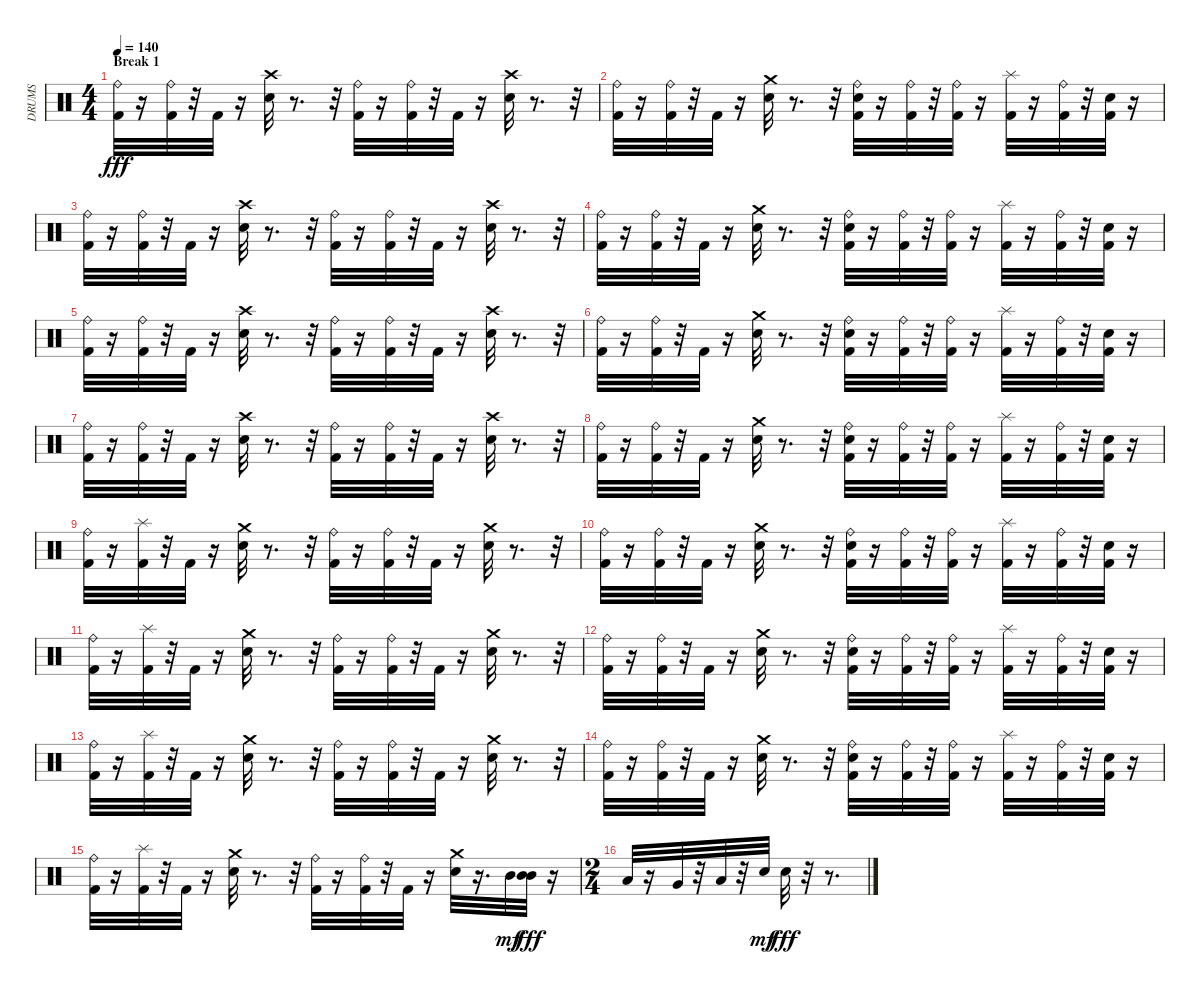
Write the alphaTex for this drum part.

\track ("DRUMS" "DRUMS") {instrument percussion}
\staff {score}
\articulation defaults
\ts (4 4)
\section ("" "Break 1")
\tempo 140
\clef neutral
\ks c
("Ride (bell)" "Kick (hit) 2").32{dy fff} r.16 ("Ride (bell)" "Kick (hit) 2").32 r.32 "Kick (hit) 2".32 r.16 ("Crash high (hit)" "Electric Snare (hit)").32 r.8{d} r.32 ("Ride (bell)" "Kick (hit) 2").32 r.16 ("Ride (bell)" "Kick (hit) 2").32 r.32 "Kick (hit) 2".32 r.16 ("Crash high (hit)" "Electric Snare (hit)").32 r.8{d} r.32 |
("Ride (bell)" "Kick (hit) 2").32 r.16 ("Ride (bell)" "Kick (hit) 2").32 r.32 "Kick (hit) 2".32 r.16 ("Crash medium (hit)" "Electric Snare (hit)").32 r.8{d} r.32 ("Ride (bell)" "Electric Snare (hit)" "Kick (hit) 2").32 r.16 ("Ride (bell)" "Kick (hit) 2").32 r.32 ("Ride (bell)" "Kick (hit) 2").32 r.16 ("Splash (hit)" "Kick (hit) 2").32 r.16 ("Ride (bell)" "Kick (hit) 2").32 r.32 ("Electric Snare (hit)" "Kick (hit) 2").32 r.16 |
("Ride (bell)" "Kick (hit) 2").32 r.16 ("Ride (bell)" "Kick (hit) 2").32 r.32 "Kick (hit) 2".32 r.16 ("Crash high (hit)" "Electric Snare (hit)").32 r.8{d} r.32 ("Ride (bell)" "Kick (hit) 2").32 r.16 ("Ride (bell)" "Kick (hit) 2").32 r.32 "Kick (hit) 2".32 r.16 ("Crash high (hit)" "Electric Snare (hit)").32 r.8{d} r.32 |
("Ride (bell)" "Kick (hit) 2").32 r.16 ("Ride (bell)" "Kick (hit) 2").32 r.32 "Kick (hit) 2".32 r.16 ("Crash medium (hit)" "Electric Snare (hit)").32 r.8{d} r.32 ("Ride (bell)" "Electric Snare (hit)" "Kick (hit) 2").32 r.16 ("Ride (bell)" "Kick (hit) 2").32 r.32 ("Ride (bell)" "Kick (hit) 2").32 r.16 ("Splash (hit)" "Kick (hit) 2").32 r.16 ("Ride (bell)" "Kick (hit) 2").32 r.32 ("Electric Snare (hit)" "Kick (hit) 2").32 r.16 |
("Ride (bell)" "Kick (hit) 2").32 r.16 ("Ride (bell)" "Kick (hit) 2").32 r.32 "Kick (hit) 2".32 r.16 ("Crash high (hit)" "Electric Snare (hit)").32 r.8{d} r.32 ("Ride (bell)" "Kick (hit) 2").32 r.16 ("Ride (bell)" "Kick (hit) 2").32 r.32 "Kick (hit) 2".32 r.16 ("Crash high (hit)" "Electric Snare (hit)").32 r.8{d} r.32 |
("Ride (bell)" "Kick (hit) 2").32 r.16 ("Ride (bell)" "Kick (hit) 2").32 r.32 "Kick (hit) 2".32 r.16 ("Crash medium (hit)" "Electric Snare (hit)").32 r.8{d} r.32 ("Ride (bell)" "Electric Snare (hit)" "Kick (hit) 2").32 r.16 ("Ride (bell)" "Kick (hit) 2").32 r.32 ("Ride (bell)" "Kick (hit) 2").32 r.16 ("Splash (hit)" "Kick (hit) 2").32 r.16 ("Ride (bell)" "Kick (hit) 2").32 r.32 ("Electric Snare (hit)" "Kick (hit) 2").32 r.16 |
("Ride (bell)" "Kick (hit) 2").32 r.16 ("Ride (bell)" "Kick (hit) 2").32 r.32 "Kick (hit) 2".32 r.16 ("Crash high (hit)" "Electric Snare (hit)").32 r.8{d} r.32 ("Ride (bell)" "Kick (hit) 2").32 r.16 ("Ride (bell)" "Kick (hit) 2").32 r.32 "Kick (hit) 2".32 r.16 ("Crash high (hit)" "Electric Snare (hit)").32 r.8{d} r.32 |
("Ride (bell)" "Kick (hit) 2").32 r.16 ("Ride (bell)" "Kick (hit) 2").32 r.32 "Kick (hit) 2".32 r.16 ("Crash medium (hit)" "Electric Snare (hit)").32 r.8{d} r.32 ("Ride (bell)" "Electric Snare (hit)" "Kick (hit) 2").32 r.16 ("Ride (bell)" "Kick (hit) 2").32 r.32 ("Ride (bell)" "Kick (hit) 2").32 r.16 ("Splash (hit)" "Kick (hit) 2").32 r.16 ("Ride (bell)" "Kick (hit) 2").32 r.32 ("Electric Snare (hit)" "Kick (hit) 2").32 r.16 |
("Ride (bell)" "Kick (hit) 2").32 r.16 ("Splash (hit)" "Kick (hit) 2").32 r.32 "Kick (hit) 2".32 r.16 ("Crash medium (hit)" "Electric Snare (hit)").32 r.8{d} r.32 ("Ride (bell)" "Kick (hit) 2").32 r.16 ("Ride (bell)" "Kick (hit) 2").32 r.32 "Kick (hit) 2".32 r.16 ("Crash medium (hit)" "Electric Snare (hit)").32 r.8{d} r.32 |
("Ride (bell)" "Kick (hit) 2").32 r.16 ("Ride (bell)" "Kick (hit) 2").32 r.32 "Kick (hit) 2".32 r.16 ("Crash medium (hit)" "Electric Snare (hit)").32 r.8{d} r.32 ("Ride (bell)" "Electric Snare (hit)" "Kick (hit) 2").32 r.16 ("Ride (bell)" "Kick (hit) 2").32 r.32 ("Ride (bell)" "Kick (hit) 2").32 r.16 ("Splash (hit)" "Kick (hit) 2").32 r.16 ("Ride (bell)" "Kick (hit) 2").32 r.32 ("Electric Snare (hit)" "Kick (hit) 2").32 r.16 |
("Ride (bell)" "Kick (hit) 2").32 r.16 ("Splash (hit)" "Kick (hit) 2").32 r.32 "Kick (hit) 2".32 r.16 ("Crash medium (hit)" "Electric Snare (hit)").32 r.8{d} r.32 ("Ride (bell)" "Kick (hit) 2").32 r.16 ("Ride (bell)" "Kick (hit) 2").32 r.32 "Kick (hit) 2".32 r.16 ("Crash medium (hit)" "Electric Snare (hit)").32 r.8{d} r.32 |
("Ride (bell)" "Kick (hit) 2").32 r.16 ("Ride (bell)" "Kick (hit) 2").32 r.32 "Kick (hit) 2".32 r.16 ("Crash medium (hit)" "Electric Snare (hit)").32 r.8{d} r.32 ("Ride (bell)" "Electric Snare (hit)" "Kick (hit) 2").32 r.16 ("Ride (bell)" "Kick (hit) 2").32 r.32 ("Ride (bell)" "Kick (hit) 2").32 r.16 ("Splash (hit)" "Kick (hit) 2").32 r.16 ("Ride (bell)" "Kick (hit) 2").32 r.32 ("Electric Snare (hit)" "Kick (hit) 2").32 r.16 |
("Ride (bell)" "Kick (hit) 2").32 r.16 ("Splash (hit)" "Kick (hit) 2").32 r.32 "Kick (hit) 2".32 r.16 ("Crash medium (hit)" "Electric Snare (hit)").32 r.8{d} r.32 ("Ride (bell)" "Kick (hit) 2").32 r.16 ("Ride (bell)" "Kick (hit) 2").32 r.32 "Kick (hit) 2".32 r.16 ("Crash medium (hit)" "Electric Snare (hit)").32 r.8{d} r.32 |
("Ride (bell)" "Kick (hit) 2").32 r.16 ("Ride (bell)" "Kick (hit) 2").32 r.32 "Kick (hit) 2".32 r.16 ("Crash medium (hit)" "Electric Snare (hit)").32 r.8{d} r.32 ("Ride (bell)" "Electric Snare (hit)" "Kick (hit) 2").32 r.16 ("Ride (bell)" "Kick (hit) 2").32 r.32 ("Ride (bell)" "Kick (hit) 2").32 r.16 ("Splash (hit)" "Kick (hit) 2").32 r.16 ("Ride (bell)" "Kick (hit) 2").32 r.32 ("Electric Snare (hit)" "Kick (hit) 2").32 r.16 |
("Ride (bell)" "Kick (hit) 2").32 r.16 ("Splash (hit)" "Kick (hit) 2").32 r.32 "Kick (hit) 2".32 r.16 ("Crash medium (hit)" "Electric Snare (hit)").32 r.8{d} r.32 ("Ride (bell)" "Kick (hit) 2").32 r.16 ("Ride (bell)" "Kick (hit) 2").32 r.32 "Kick (hit) 2".32 r.16 ("Crash medium (hit)" "Electric Snare (hit)").32 r.16{d} "Mid Tom (hit)".32{dy mf} ("Mid Tom (hit)" "Mid Tom (hit)").32{dy fff} r.16 |
\ts (2 4)
"Low Tom (hit)".32 r.16 "Very Low Tom (hit)".32 r.32 "Low Floor Tom (hit)".32 r.32 "Electric Snare (hit)".32{dy mf} "Electric Snare (hit)".32{dy fff} r.32 r.8{d}
